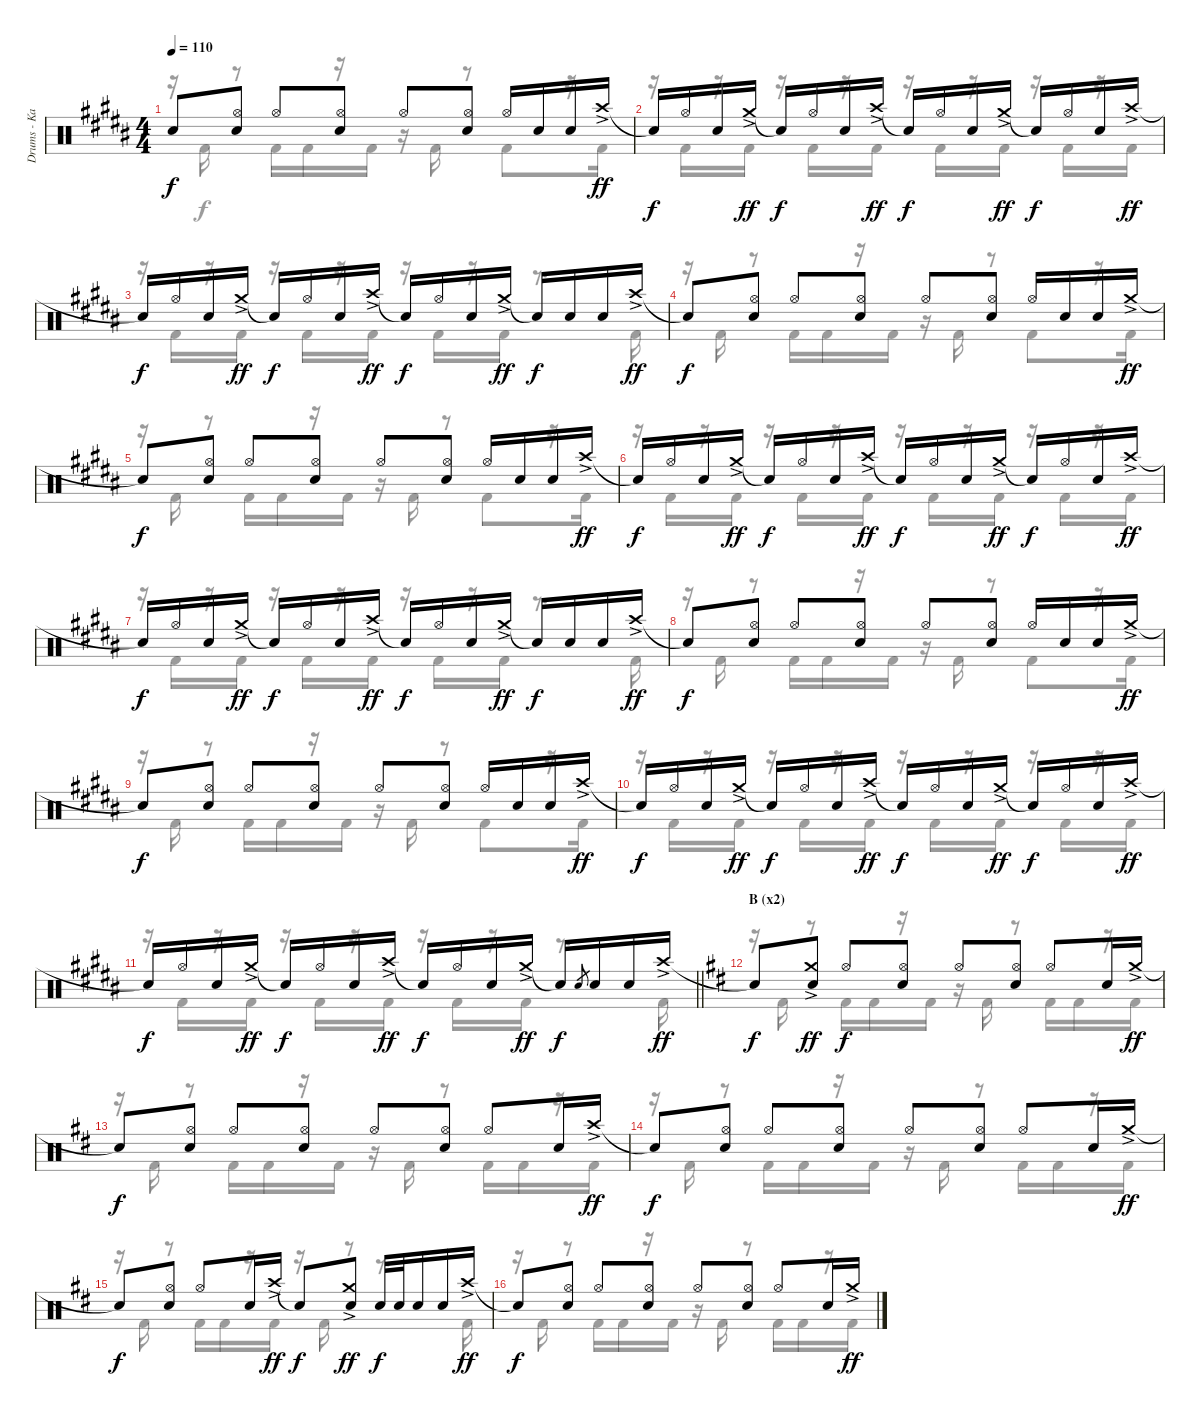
\track ("Drums - Kai" "Drums - Ka") {instrument percussion}
\staff {score}
\articulation defaults
\voice
\ts (4 4)
\tempo 110
\clef neutral
\ks b "Snare (hit)"{t}.8{dy f}
("Hi-Hat (open)" "Snare (hit) 2").8 "Hi-Hat (open)".8 ("Hi-Hat (open)" "Snare (hit) 2").8 "Hi-Hat (open)".8 ("Hi-Hat (open)" "Snare (hit) 2").8 "Hi-Hat (open)".16 "Snare (hit) 2".16 "Snare (hit) 2".16 "Crash high (hit)"{ac}.16{dy ff} |
"Snare (hit)"{t}.16{dy f} "Hi-Hat (open)".16 "Snare (hit) 2".16 "Crash medium (hit)"{ac}.16{dy ff} "Snare (hit)"{t}.16{dy f} "Hi-Hat (open)".16 "Snare (hit) 2".16 "Crash high (hit)"{ac}.16{dy ff} "Snare (hit)"{t}.16{dy f} "Hi-Hat (open)".16 "Snare (hit) 2".16 "Crash medium (hit)"{ac}.16{dy ff} "Snare (hit)"{t}.16{dy f} "Hi-Hat (open)".16 "Snare (hit) 2".16 "Crash high (hit)"{ac}.16{dy ff} |
"Snare (hit)"{t}.16{dy f} "Hi-Hat (open)".16 "Snare (hit) 2".16 "Crash medium (hit)"{ac}.16{dy ff} "Snare (hit)"{t}.16{dy f} "Hi-Hat (open)".16 "Snare (hit) 2".16 "Crash high (hit)"{ac}.16{dy ff} "Snare (hit)"{t}.16{dy f} "Hi-Hat (open)".16 "Snare (hit) 2".16 "Crash medium (hit)"{ac}.16{dy ff} "Snare (hit)"{t}.16{dy f} "Snare (hit) 2".16 "Snare (hit) 2".16 "Crash high (hit)"{ac}.16{dy ff} |
"Snare (hit)"{t}.8{dy f} ("Hi-Hat (open)" "Snare (hit) 2").8 "Hi-Hat (open)".8 ("Hi-Hat (open)" "Snare (hit) 2").8 "Hi-Hat (open)".8 ("Hi-Hat (open)" "Snare (hit) 2").8 "Hi-Hat (open)".16 "Snare (hit) 2".16 "Snare (hit) 2".16 "Crash medium (hit)"{ac}.16{dy ff} |
"Snare (hit)"{t}.8{dy f} ("Hi-Hat (open)" "Snare (hit) 2").8 "Hi-Hat (open)".8 ("Hi-Hat (open)" "Snare (hit) 2").8 "Hi-Hat (open)".8 ("Hi-Hat (open)" "Snare (hit) 2").8 "Hi-Hat (open)".16 "Snare (hit) 2".16 "Snare (hit) 2".16 "Crash high (hit)"{ac}.16{dy ff} |
"Snare (hit)"{t}.16{dy f} "Hi-Hat (open)".16 "Snare (hit) 2".16 "Crash medium (hit)"{ac}.16{dy ff} "Snare (hit)"{t}.16{dy f} "Hi-Hat (open)".16 "Snare (hit) 2".16 "Crash high (hit)"{ac}.16{dy ff} "Snare (hit)"{t}.16{dy f} "Hi-Hat (open)".16 "Snare (hit) 2".16 "Crash medium (hit)"{ac}.16{dy ff} "Snare (hit)"{t}.16{dy f} "Hi-Hat (open)".16 "Snare (hit) 2".16 "Crash high (hit)"{ac}.16{dy ff} |
"Snare (hit)"{t}.16{dy f} "Hi-Hat (open)".16 "Snare (hit) 2".16 "Crash medium (hit)"{ac}.16{dy ff} "Snare (hit)"{t}.16{dy f} "Hi-Hat (open)".16 "Snare (hit) 2".16 "Crash high (hit)"{ac}.16{dy ff} "Snare (hit)"{t}.16{dy f} "Hi-Hat (open)".16 "Snare (hit) 2".16 "Crash medium (hit)"{ac}.16{dy ff} "Snare (hit)"{t}.16{dy f} "Snare (hit) 2".16 "Snare (hit) 2".16 "Crash high (hit)"{ac}.16{dy ff} |
"Snare (hit)"{t}.8{dy f} ("Hi-Hat (open)" "Snare (hit) 2").8 "Hi-Hat (open)".8 ("Hi-Hat (open)" "Snare (hit) 2").8 "Hi-Hat (open)".8 ("Hi-Hat (open)" "Snare (hit) 2").8 "Hi-Hat (open)".16 "Snare (hit) 2".16 "Snare (hit) 2".16 "Crash medium (hit)"{ac}.16{dy ff} |
"Snare (hit)"{t}.8{dy f} ("Hi-Hat (open)" "Snare (hit) 2").8 "Hi-Hat (open)".8 ("Hi-Hat (open)" "Snare (hit) 2").8 "Hi-Hat (open)".8 ("Hi-Hat (open)" "Snare (hit) 2").8 "Hi-Hat (open)".16 "Snare (hit) 2".16 "Snare (hit) 2".16 "Crash high (hit)"{ac}.16{dy ff} |
"Snare (hit)"{t}.16{dy f} "Hi-Hat (open)".16 "Snare (hit) 2".16 "Crash medium (hit)"{ac}.16{dy ff} "Snare (hit)"{t}.16{dy f} "Hi-Hat (open)".16 "Snare (hit) 2".16 "Crash high (hit)"{ac}.16{dy ff} "Snare (hit)"{t}.16{dy f} "Hi-Hat (open)".16 "Snare (hit) 2".16 "Crash medium (hit)"{ac}.16{dy ff} "Snare (hit)"{t}.16{dy f} "Hi-Hat (open)".16 "Snare (hit) 2".16 "Crash high (hit)"{ac}.16{dy ff} |
\barLineRight lightlight "Snare (hit)"{t}.16{dy f} "Hi-Hat (open)".16 "Snare (hit) 2".16 "Crash medium (hit)"{ac}.16{dy ff} "Snare (hit)"{t}.16{dy f} "Hi-Hat (open)".16 "Snare (hit) 2".16 "Crash high (hit)"{ac}.16{dy ff} "Snare (hit)"{t}.16{dy f} "Hi-Hat (open)".16 "Snare (hit) 2".16 "Crash medium (hit)"{ac}.16{dy ff} "Snare (hit)"{t}.16{dy f} "Snare (hit) 2".8{gr} "Snare (hit) 2".16 "Snare (hit) 2".16 "Crash high (hit)"{ac}.16{dy ff}
|
\section ("" "B (x2)")
\ks d "Snare (hit)"{t}.8{dy f}
("Crash medium (hit)"{ac} "Snare (hit) 2").8{dy ff} "Hi-Hat (open)".8{dy f} ("Hi-Hat (open)" "Snare (hit) 2").8 "Hi-Hat (open)".8 ("Hi-Hat (open)" "Snare (hit) 2").8 "Hi-Hat (open)".8 "Snare (hit) 2".16 "Crash medium (hit)"{ac}.16{dy ff} |
"Snare (hit)"{t}.8{dy f} ("Hi-Hat (open)" "Snare (hit) 2").8 "Hi-Hat (open)".8 ("Hi-Hat (open)" "Snare (hit) 2").8 "Hi-Hat (open)".8 ("Hi-Hat (open)" "Snare (hit) 2").8 "Hi-Hat (open)".8 "Snare (hit) 2".16 "Crash high (hit)"{ac}.16{dy ff} |
"Snare (hit)"{t}.8{dy f} ("Hi-Hat (open)" "Snare (hit) 2").8 "Hi-Hat (open)".8 ("Hi-Hat (open)" "Snare (hit) 2").8 "Hi-Hat (open)".8 ("Hi-Hat (open)" "Snare (hit) 2").8 "Hi-Hat (open)".8 "Snare (hit) 2".16 "Crash medium (hit)"{ac}.16{dy ff} |
"Snare (hit)"{t}.8{dy f} ("Hi-Hat (open)" "Snare (hit) 2").8 "Hi-Hat (open)".8 "Snare (hit) 2".16 "Crash high (hit)"{ac}.16{dy ff} "Snare (hit)"{t}.8{dy f} ("Crash medium (hit)"{ac} "Snare (hit) 2").8{dy ff} "Snare (hit) 2".32{dy f} "Snare (hit) 2".32 "Snare (hit) 2".16 "Snare (hit) 2".16 "Crash high (hit)"{ac}.16{dy ff} |
"Snare (hit)"{t}.8{dy f} ("Hi-Hat (open)" "Snare (hit) 2").8 "Hi-Hat (open)".8 ("Hi-Hat (open)" "Snare (hit) 2").8 "Hi-Hat (open)".8 ("Hi-Hat (open)" "Snare (hit) 2").8 "Hi-Hat (open)".8 "Snare (hit) 2".16 "Crash medium (hit)"{ac}.16{dy ff}
\voice
\clef neutral
\ottava regular
\simile none
\ks b
r.16{dy f} "Kick (hit) 2".16 r.8 "Kick (hit) 2".16 "Kick (hit) 2".16 r.16 "Kick (hit) 2".16 r.16 "Kick (hit) 2".16 r.8 "Kick (hit) 2".8 r.16 "Kick (hit) 2".16 |
r.16 "Kick (hit) 2".16 r.16 "Kick (hit) 2".16 r.16 "Kick (hit) 2".16 r.16 "Kick (hit) 2".16 r.16 "Kick (hit) 2".16 r.16 "Kick (hit) 2".16 r.16 "Kick (hit) 2".16 r.16 "Kick (hit) 2".16 |
r.16 "Kick (hit) 2".16 r.16 "Kick (hit) 2".16 r.16 "Kick (hit) 2".16 r.16 "Kick (hit) 2".16 r.16 "Kick (hit) 2".16 r.16 "Kick (hit) 2".16 r.8{d} "Kick (hit) 2".16 |
r.16 "Kick (hit) 2".16 r.8 "Kick (hit) 2".16 "Kick (hit) 2".16 r.16 "Kick (hit) 2".16 r.16 "Kick (hit) 2".16 r.8 "Kick (hit) 2".8 r.16 "Kick (hit) 2".16 |
r.16 "Kick (hit) 2".16 r.8 "Kick (hit) 2".16 "Kick (hit) 2".16 r.16 "Kick (hit) 2".16 r.16 "Kick (hit) 2".16 r.8 "Kick (hit) 2".8 r.16 "Kick (hit) 2".16 |
r.16 "Kick (hit) 2".16 r.16 "Kick (hit) 2".16 r.16 "Kick (hit) 2".16 r.16 "Kick (hit) 2".16 r.16 "Kick (hit) 2".16 r.16 "Kick (hit) 2".16 r.16 "Kick (hit) 2".16 r.16 "Kick (hit) 2".16 |
r.16 "Kick (hit) 2".16 r.16 "Kick (hit) 2".16 r.16 "Kick (hit) 2".16 r.16 "Kick (hit) 2".16 r.16 "Kick (hit) 2".16 r.16 "Kick (hit) 2".16 r.8{d} "Kick (hit) 2".16 |
r.16 "Kick (hit) 2".16 r.8 "Kick (hit) 2".16 "Kick (hit) 2".16 r.16 "Kick (hit) 2".16 r.16 "Kick (hit) 2".16 r.8 "Kick (hit) 2".8 r.16 "Kick (hit) 2".16 |
r.16 "Kick (hit) 2".16 r.8 "Kick (hit) 2".16 "Kick (hit) 2".16 r.16 "Kick (hit) 2".16 r.16 "Kick (hit) 2".16 r.8 "Kick (hit) 2".8 r.16 "Kick (hit) 2".16 |
r.16 "Kick (hit) 2".16 r.16 "Kick (hit) 2".16 r.16 "Kick (hit) 2".16 r.16 "Kick (hit) 2".16 r.16 "Kick (hit) 2".16 r.16 "Kick (hit) 2".16 r.16 "Kick (hit) 2".16 r.16 "Kick (hit) 2".16 |
\barLineRight lightlight
r.16 "Kick (hit) 2".16 r.16 "Kick (hit) 2".16 r.16 "Kick (hit) 2".16 r.16 "Kick (hit) 2".16 r.16 "Kick (hit) 2".16 r.16 "Kick (hit) 2".16 r.8{d} "Kick (hit) 2".16 |
\ks d
r.16 "Kick (hit) 2".16 r.8 "Kick (hit) 2".16 "Kick (hit) 2".16 r.16 "Kick (hit) 2".16 r.16 "Kick (hit) 2".16 r.8 "Kick (hit) 2".16 "Kick (hit) 2".16 r.16 "Kick (hit) 2".16 |
r.16 "Kick (hit) 2".16 r.8 "Kick (hit) 2".16 "Kick (hit) 2".16 r.16 "Kick (hit) 2".16 r.16 "Kick (hit) 2".16 r.8 "Kick (hit) 2".16 "Kick (hit) 2".16 r.16 "Kick (hit) 2".16 |
r.16 "Kick (hit) 2".16 r.8 "Kick (hit) 2".16 "Kick (hit) 2".16 r.16 "Kick (hit) 2".16 r.16 "Kick (hit) 2".16 r.8 "Kick (hit) 2".16 "Kick (hit) 2".16 r.16 "Kick (hit) 2".16 |
r.16 "Kick (hit) 2".16 r.8 "Kick (hit) 2".16 "Kick (hit) 2".16 r.16 "Kick (hit) 2".16 r.16 "Kick (hit) 2".16 r.8 r.8{d} "Kick (hit) 2".16 |
r.16 "Kick (hit) 2".16 r.8 "Kick (hit) 2".16 "Kick (hit) 2".16 r.16 "Kick (hit) 2".16 r.16 "Kick (hit) 2".16 r.8 "Kick (hit) 2".16 "Kick (hit) 2".16 r.16 "Kick (hit) 2".16
